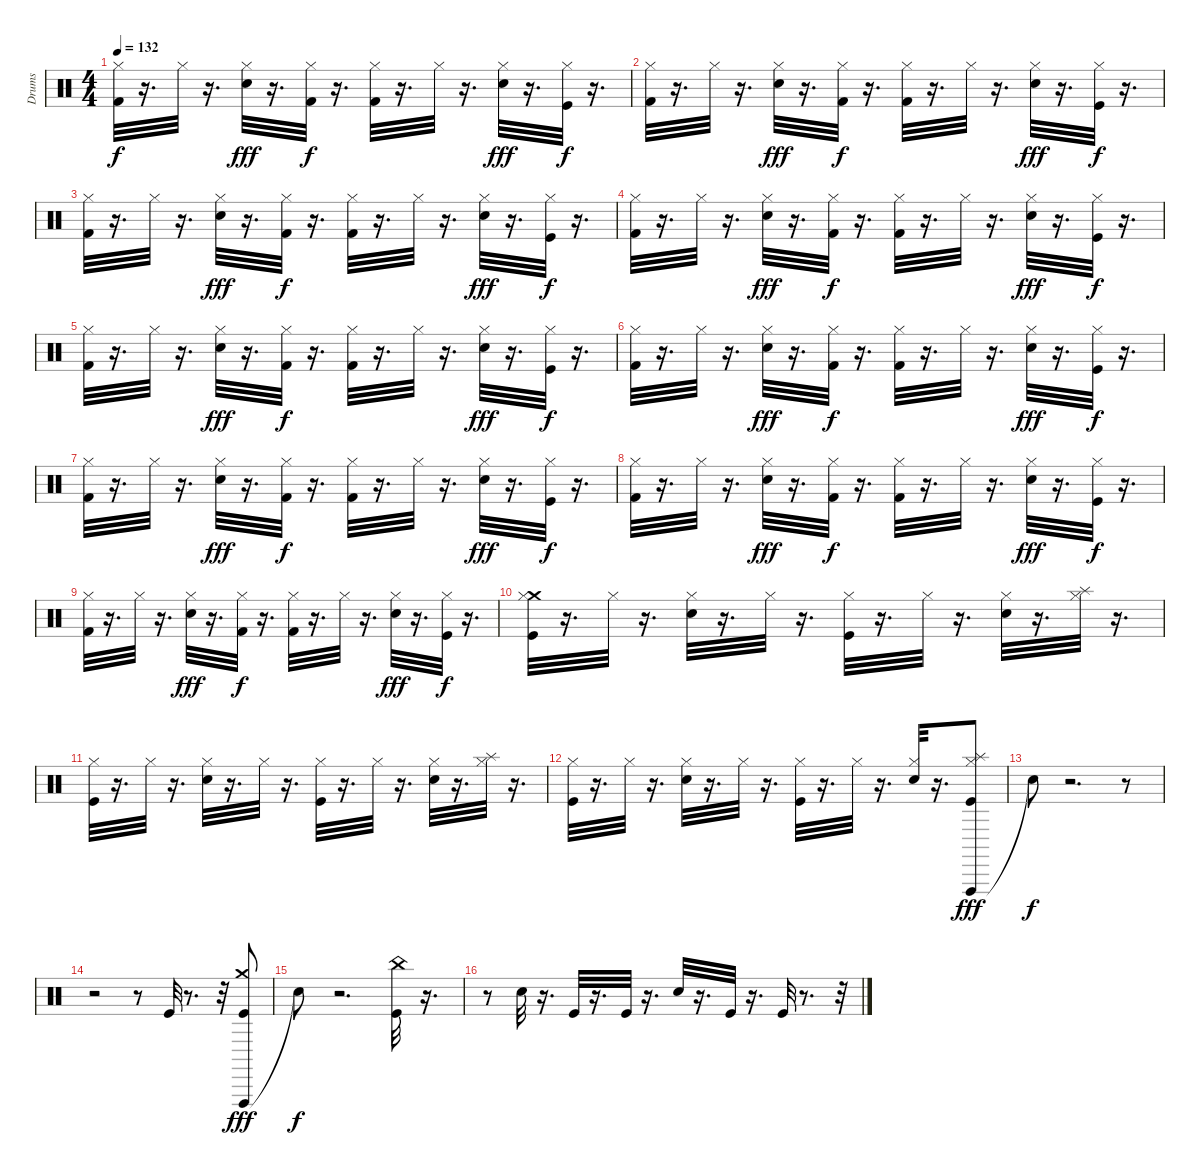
\track ("Drums" "Drums") {instrument percussion}
\staff {score}
\articulation defaults
\ts (4 4)
\tempo 132
\clef neutral
\ks c
("Hi-Hat (closed)" "Kick (hit) 2").32{dy f} r.16{d} "Hi-Hat (closed)".32 r.16{d} ("Hi-Hat (closed)" "Hand Clap (hit)").32{dy fff} r.16{d} ("Hi-Hat (closed)" "Kick (hit) 2").32{dy f} r.16{d} ("Hi-Hat (closed)" "Kick (hit) 2").32 r.16{d} "Hi-Hat (closed)".32 r.16{d} ("Hi-Hat (closed)" "Hand Clap (hit)").32{dy fff} r.16{d} ("Hi-Hat (closed)" "Kick (hit)").32{dy f} r.16{d} |
("Hi-Hat (closed)" "Kick (hit) 2").32 r.16{d} "Hi-Hat (closed)".32 r.16{d} ("Hi-Hat (closed)" "Hand Clap (hit)").32{dy fff} r.16{d} ("Hi-Hat (closed)" "Kick (hit) 2").32{dy f} r.16{d} ("Hi-Hat (closed)" "Kick (hit) 2").32 r.16{d} "Hi-Hat (closed)".32 r.16{d} ("Hi-Hat (closed)" "Hand Clap (hit)").32{dy fff} r.16{d} ("Hi-Hat (closed)" "Kick (hit)").32{dy f} r.16{d} |
("Hi-Hat (closed)" "Kick (hit) 2").32 r.16{d} "Hi-Hat (closed)".32 r.16{d} ("Hi-Hat (closed)" "Hand Clap (hit)").32{dy fff} r.16{d} ("Hi-Hat (closed)" "Kick (hit) 2").32{dy f} r.16{d} ("Hi-Hat (closed)" "Kick (hit) 2").32 r.16{d} "Hi-Hat (closed)".32 r.16{d} ("Hi-Hat (closed)" "Hand Clap (hit)").32{dy fff} r.16{d} ("Hi-Hat (closed)" "Kick (hit)").32{dy f} r.16{d} |
("Hi-Hat (closed)" "Kick (hit) 2").32 r.16{d} "Hi-Hat (closed)".32 r.16{d} ("Hi-Hat (closed)" "Hand Clap (hit)").32{dy fff} r.16{d} ("Hi-Hat (closed)" "Kick (hit) 2").32{dy f} r.16{d} ("Hi-Hat (closed)" "Kick (hit) 2").32 r.16{d} "Hi-Hat (closed)".32 r.16{d} ("Hi-Hat (closed)" "Hand Clap (hit)").32{dy fff} r.16{d} ("Hi-Hat (closed)" "Kick (hit)").32{dy f} r.16{d} |
("Hi-Hat (closed)" "Kick (hit) 2").32 r.16{d} "Hi-Hat (closed)".32 r.16{d} ("Hi-Hat (closed)" "Hand Clap (hit)").32{dy fff} r.16{d} ("Hi-Hat (closed)" "Kick (hit) 2").32{dy f} r.16{d} ("Hi-Hat (closed)" "Kick (hit) 2").32 r.16{d} "Hi-Hat (closed)".32 r.16{d} ("Hi-Hat (closed)" "Hand Clap (hit)").32{dy fff} r.16{d} ("Hi-Hat (closed)" "Kick (hit)").32{dy f} r.16{d} |
("Hi-Hat (closed)" "Kick (hit) 2").32 r.16{d} "Hi-Hat (closed)".32 r.16{d} ("Hi-Hat (closed)" "Hand Clap (hit)").32{dy fff} r.16{d} ("Hi-Hat (closed)" "Kick (hit) 2").32{dy f} r.16{d} ("Hi-Hat (closed)" "Kick (hit) 2").32 r.16{d} "Hi-Hat (closed)".32 r.16{d} ("Hi-Hat (closed)" "Hand Clap (hit)").32{dy fff} r.16{d} ("Hi-Hat (closed)" "Kick (hit)").32{dy f} r.16{d} |
("Hi-Hat (closed)" "Kick (hit) 2").32 r.16{d} "Hi-Hat (closed)".32 r.16{d} ("Hi-Hat (closed)" "Hand Clap (hit)").32{dy fff} r.16{d} ("Hi-Hat (closed)" "Kick (hit) 2").32{dy f} r.16{d} ("Hi-Hat (closed)" "Kick (hit) 2").32 r.16{d} "Hi-Hat (closed)".32 r.16{d} ("Hi-Hat (closed)" "Hand Clap (hit)").32{dy fff} r.16{d} ("Hi-Hat (closed)" "Kick (hit)").32{dy f} r.16{d} |
("Hi-Hat (closed)" "Kick (hit) 2").32 r.16{d} "Hi-Hat (closed)".32 r.16{d} ("Hi-Hat (closed)" "Hand Clap (hit)").32{dy fff} r.16{d} ("Hi-Hat (closed)" "Kick (hit) 2").32{dy f} r.16{d} ("Hi-Hat (closed)" "Kick (hit) 2").32 r.16{d} "Hi-Hat (closed)".32 r.16{d} ("Hi-Hat (closed)" "Hand Clap (hit)").32{dy fff} r.16{d} ("Hi-Hat (closed)" "Kick (hit)").32{dy f} r.16{d} |
("Hi-Hat (closed)" "Kick (hit) 2").32 r.16{d} "Hi-Hat (closed)".32 r.16{d} ("Hi-Hat (closed)" "Hand Clap (hit)").32{dy fff} r.16{d} ("Hi-Hat (closed)" "Kick (hit) 2").32{dy f} r.16{d} ("Hi-Hat (closed)" "Kick (hit) 2").32 r.16{d} "Hi-Hat (closed)".32 r.16{d} ("Hi-Hat (closed)" "Hand Clap (hit)").32{dy fff} r.16{d} ("Hi-Hat (closed)" "Kick (hit)").32{dy f} r.16{d} |
("Crash medium (hit)" "Hi-Hat (closed)" "Kick (hit)").32 r.16{d} "Hi-Hat (closed)".32 r.16{d} ("Hi-Hat (closed)" "Snare (hit) 2").32 r.16{d} "Hi-Hat (closed)".32 r.16{d} ("Hi-Hat (closed)" "Kick (hit)").32 r.16{d} "Hi-Hat (closed)".32 r.16{d} ("Hi-Hat (closed)" "Snare (hit) 2").32 r.16{d} ("Splash (hit)" "Hi-Hat (closed)").32 r.16{d} |
("Hi-Hat (closed)" "Kick (hit)").32 r.16{d} "Hi-Hat (closed)".32 r.16{d} ("Hi-Hat (closed)" "Snare (hit) 2").32 r.16{d} "Hi-Hat (closed)".32 r.16{d} ("Hi-Hat (closed)" "Kick (hit)").32 r.16{d} "Hi-Hat (closed)".32 r.16{d} ("Hi-Hat (closed)" "Snare (hit) 2").32 r.16{d} ("Splash (hit)" "Hi-Hat (closed)").32 r.16{d} |
("Hi-Hat (closed)" "Kick (hit)").32 r.16{d} "Hi-Hat (closed)".32 r.16{d} ("Hi-Hat (closed)" "Snare (hit) 2").32 r.16{d} "Hi-Hat (closed)".32 r.16{d} ("Hi-Hat (closed)" "Kick (hit)").32 r.16{d} "Hi-Hat (closed)".32 r.16{d} ("Hi-Hat (closed)" "Snare (hit) 2").32 r.16{d} ("Vibraslap (hit)" "Splash (hit)" "Hi-Hat (closed)" "Kick (hit)").8{dy fff} |
"Snare (hit)"{t}.8{dy f} r.2{d} r.8 |
r.2 r.8 "Kick (hit)".32 r.8{d} r.32 ("Vibraslap (hit)" "Crash medium (hit)" "Kick (hit)").8{dy fff} |
"Snare (hit)"{t}.8{dy f} r.2{d} ("China (hit)" "Kick (hit)").32 r.16{d} |
r.8 "Snare (hit) 2".32 r.16{d} "Kick (hit)".32 r.16{d} "Kick (hit)".32 r.16{d} "Snare (hit) 2".32 r.16{d} "Kick (hit)".32 r.16{d} "Kick (hit)".32 r.8{d} r.32
